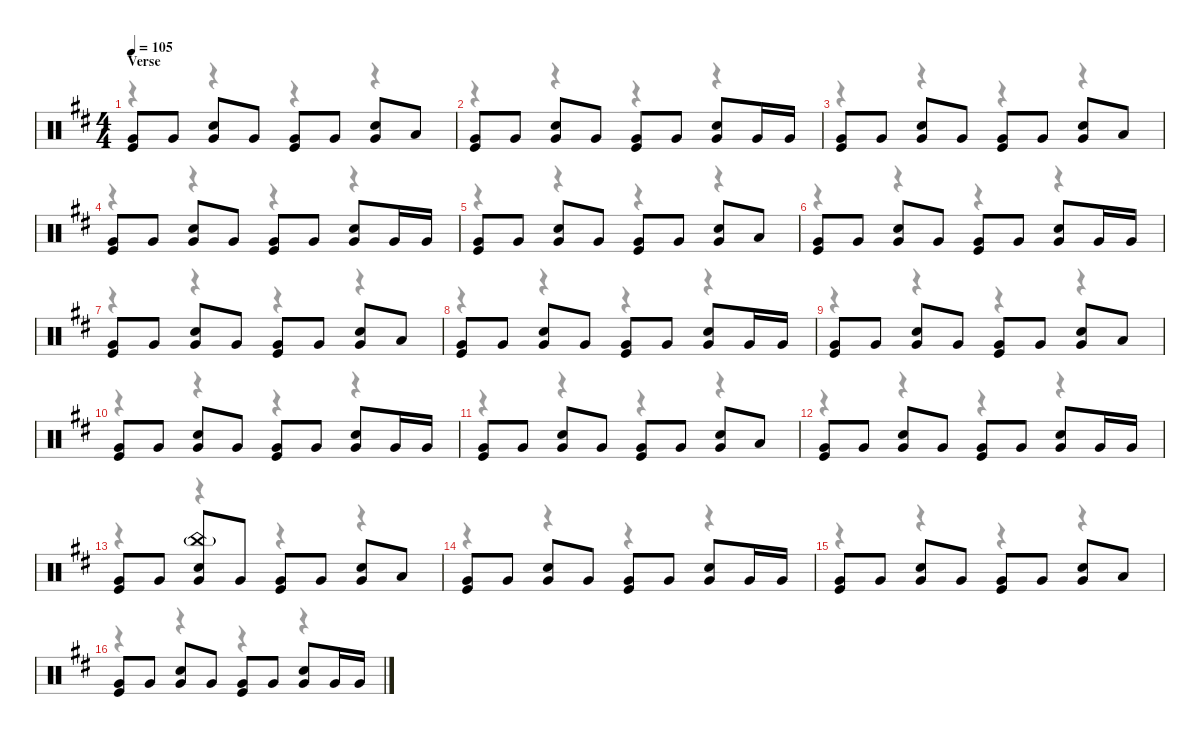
\defaultSystemsLayout 4
\hideDynamics
\bracketExtendMode nobrackets
\singleTrackTrackNamePolicy hidden
\multiTrackTrackNamePolicy hidden
\firstSystemTrackNameMode fullname
\firstSystemTrackNameOrientation horizontal
\otherSystemsTrackNameOrientation horizontal
\track ("Drums" "drm.") {instrument percussion}
\staff {score}
\articulation defaults
\voice
\ts (4 4)
\section ("" "Verse")
\tempo 105
\clef neutral
\ks bminor
("Very Low Tom (hit)"{acc forcenatural} "Kick (hit)"{acc forcenatural}).8{dy mp beam Up} "Very Low Tom (hit)"{acc forcenatural}.8{beam Up} ("Very Low Tom (hit)"{acc forcenatural} "Snare (hit) 2"{acc forcenatural}).8{beam Up} "Very Low Tom (hit)"{acc forcenatural}.8{beam Up} ("Very Low Tom (hit)"{acc forcenatural} "Kick (hit)"{acc forcenatural}).8{beam Up} "Very Low Tom (hit)"{acc forcenatural}.8{beam Up} ("Very Low Tom (hit)"{acc forcenatural} "Snare (hit) 2"{acc forcenatural}).8{beam Up} "Low Tom (hit)"{acc forcenatural}.8{beam Up} |
("Very Low Tom (hit)"{acc forcenatural} "Kick (hit)"{acc forcenatural}).8{beam Up} "Very Low Tom (hit)"{acc forcenatural}.8{beam Up} ("Very Low Tom (hit)"{acc forcenatural} "Snare (hit) 2"{acc forcenatural}).8{beam Up} "Very Low Tom (hit)"{acc forcenatural}.8{beam Up} ("Very Low Tom (hit)"{acc forcenatural} "Kick (hit)"{acc forcenatural}).8{beam Up} "Very Low Tom (hit)"{acc forcenatural}.8{beam Up} ("Very Low Tom (hit)"{acc forcenatural} "Snare (hit) 2"{acc forcenatural}).8{beam Up} "Very Low Tom (hit)"{acc forcenatural}.16{beam Up} "Very Low Tom (hit)"{acc forcenatural}.16{beam Up} |
("Very Low Tom (hit)"{acc forcenatural} "Kick (hit)"{acc forcenatural}).8{beam Up} "Very Low Tom (hit)"{acc forcenatural}.8{beam Up} ("Very Low Tom (hit)"{acc forcenatural} "Snare (hit) 2"{acc forcenatural}).8{beam Up} "Very Low Tom (hit)"{acc forcenatural}.8{beam Up} ("Very Low Tom (hit)"{acc forcenatural} "Kick (hit)"{acc forcenatural}).8{beam Up} "Very Low Tom (hit)"{acc forcenatural}.8{beam Up} ("Very Low Tom (hit)"{acc forcenatural} "Snare (hit) 2"{acc forcenatural}).8{beam Up} "Low Tom (hit)"{acc forcenatural}.8{beam Up} |
("Very Low Tom (hit)"{acc forcenatural} "Kick (hit)"{acc forcenatural}).8{beam Up} "Very Low Tom (hit)"{acc forcenatural}.8{beam Up} ("Very Low Tom (hit)"{acc forcenatural} "Snare (hit) 2"{acc forcenatural}).8{beam Up} "Very Low Tom (hit)"{acc forcenatural}.8{beam Up} ("Very Low Tom (hit)"{acc forcenatural} "Kick (hit)"{acc forcenatural}).8{beam Up} "Very Low Tom (hit)"{acc forcenatural}.8{beam Up} ("Very Low Tom (hit)"{acc forcenatural} "Snare (hit) 2"{acc forcenatural}).8{beam Up} "Very Low Tom (hit)"{acc forcenatural}.16{beam Up} "Very Low Tom (hit)"{acc forcenatural}.16{beam Up} |
("Very Low Tom (hit)"{acc forcenatural} "Kick (hit)"{acc forcenatural}).8{beam Up} "Very Low Tom (hit)"{acc forcenatural}.8{beam Up} ("Very Low Tom (hit)"{acc forcenatural} "Snare (hit) 2"{acc forcenatural}).8{beam Up} "Very Low Tom (hit)"{acc forcenatural}.8{beam Up} ("Very Low Tom (hit)"{acc forcenatural} "Kick (hit)"{acc forcenatural}).8{beam Up} "Very Low Tom (hit)"{acc forcenatural}.8{beam Up} ("Very Low Tom (hit)"{acc forcenatural} "Snare (hit) 2"{acc forcenatural}).8{beam Up} "Low Tom (hit)"{acc forcenatural}.8{beam Up} |
("Very Low Tom (hit)"{acc forcenatural} "Kick (hit)"{acc forcenatural}).8{beam Up} "Very Low Tom (hit)"{acc forcenatural}.8{beam Up} ("Very Low Tom (hit)"{acc forcenatural} "Snare (hit) 2"{acc forcenatural}).8{beam Up} "Very Low Tom (hit)"{acc forcenatural}.8{beam Up} ("Very Low Tom (hit)"{acc forcenatural} "Kick (hit)"{acc forcenatural}).8{beam Up} "Very Low Tom (hit)"{acc forcenatural}.8{beam Up} ("Very Low Tom (hit)"{acc forcenatural} "Snare (hit) 2"{acc forcenatural}).8{beam Up} "Very Low Tom (hit)"{acc forcenatural}.16{beam Up} "Very Low Tom (hit)"{acc forcenatural}.16{beam Up} |
("Very Low Tom (hit)"{acc forcenatural} "Kick (hit)"{acc forcenatural}).8{beam Up} "Very Low Tom (hit)"{acc forcenatural}.8{beam Up} ("Very Low Tom (hit)"{acc forcenatural} "Snare (hit) 2"{acc forcenatural}).8{beam Up} "Very Low Tom (hit)"{acc forcenatural}.8{beam Up} ("Very Low Tom (hit)"{acc forcenatural} "Kick (hit)"{acc forcenatural}).8{beam Up} "Very Low Tom (hit)"{acc forcenatural}.8{beam Up} ("Very Low Tom (hit)"{acc forcenatural} "Snare (hit) 2"{acc forcenatural}).8{beam Up} "Low Tom (hit)"{acc forcenatural}.8{beam Up} |
("Very Low Tom (hit)"{acc forcenatural} "Kick (hit)"{acc forcenatural}).8{beam Up} "Very Low Tom (hit)"{acc forcenatural}.8{beam Up} ("Very Low Tom (hit)"{acc forcenatural} "Snare (hit) 2"{acc forcenatural}).8{beam Up} "Very Low Tom (hit)"{acc forcenatural}.8{beam Up} ("Very Low Tom (hit)"{acc forcenatural} "Kick (hit)"{acc forcenatural}).8{beam Up} "Very Low Tom (hit)"{acc forcenatural}.8{beam Up} ("Very Low Tom (hit)"{acc forcenatural} "Snare (hit) 2"{acc forcenatural}).8{beam Up} "Very Low Tom (hit)"{acc forcenatural}.16{beam Up} "Very Low Tom (hit)"{acc forcenatural}.16{beam Up} |
("Very Low Tom (hit)"{acc forcenatural} "Kick (hit)"{acc forcenatural}).8{beam Up} "Very Low Tom (hit)"{acc forcenatural}.8{beam Up} ("Very Low Tom (hit)"{acc forcenatural} "Snare (hit) 2"{acc forcenatural}).8{beam Up} "Very Low Tom (hit)"{acc forcenatural}.8{beam Up} ("Very Low Tom (hit)"{acc forcenatural} "Kick (hit)"{acc forcenatural}).8{beam Up} "Very Low Tom (hit)"{acc forcenatural}.8{beam Up} ("Very Low Tom (hit)"{acc forcenatural} "Snare (hit) 2"{acc forcenatural}).8{beam Up} "Low Tom (hit)"{acc forcenatural}.8{beam Up} |
("Very Low Tom (hit)"{acc forcenatural} "Kick (hit)"{acc forcenatural}).8{beam Up} "Very Low Tom (hit)"{acc forcenatural}.8{beam Up} ("Very Low Tom (hit)"{acc forcenatural} "Snare (hit) 2"{acc forcenatural}).8{beam Up} "Very Low Tom (hit)"{acc forcenatural}.8{beam Up} ("Very Low Tom (hit)"{acc forcenatural} "Kick (hit)"{acc forcenatural}).8{beam Up} "Very Low Tom (hit)"{acc forcenatural}.8{beam Up} ("Very Low Tom (hit)"{acc forcenatural} "Snare (hit) 2"{acc forcenatural}).8{beam Up} "Very Low Tom (hit)"{acc forcenatural}.16{beam Up} "Very Low Tom (hit)"{acc forcenatural}.16{beam Up} |
("Very Low Tom (hit)"{acc forcenatural} "Kick (hit)"{acc forcenatural}).8{beam Up} "Very Low Tom (hit)"{acc forcenatural}.8{beam Up} ("Very Low Tom (hit)"{acc forcenatural} "Snare (hit) 2"{acc forcenatural}).8{beam Up} "Very Low Tom (hit)"{acc forcenatural}.8{beam Up} ("Very Low Tom (hit)"{acc forcenatural} "Kick (hit)"{acc forcenatural}).8{beam Up} "Very Low Tom (hit)"{acc forcenatural}.8{beam Up} ("Very Low Tom (hit)"{acc forcenatural} "Snare (hit) 2"{acc forcenatural}).8{beam Up} "Low Tom (hit)"{acc forcenatural}.8{beam Up} |
("Very Low Tom (hit)"{acc forcenatural} "Kick (hit)"{acc forcenatural}).8{beam Up} "Very Low Tom (hit)"{acc forcenatural}.8{beam Up} ("Very Low Tom (hit)"{acc forcenatural} "Snare (hit) 2"{acc forcenatural}).8{beam Up} "Very Low Tom (hit)"{acc forcenatural}.8{beam Up} ("Very Low Tom (hit)"{acc forcenatural} "Kick (hit)"{acc forcenatural}).8{beam Up} "Very Low Tom (hit)"{acc forcenatural}.8{beam Up} ("Very Low Tom (hit)"{acc forcenatural} "Snare (hit) 2"{acc forcenatural}).8{beam Up} "Very Low Tom (hit)"{acc forcenatural}.16{beam Up} "Very Low Tom (hit)"{acc forcenatural}.16{beam Up} |
("Very Low Tom (hit)"{acc forcenatural} "Kick (hit)"{acc forcenatural}).8{beam Up} "Very Low Tom (hit)"{acc forcenatural}.8{beam Up} ("China (hit)"{g acc forcenatural} "Very Low Tom (hit)"{acc forcenatural} "Snare (hit) 2"{acc forcenatural}).8{beam Up} "Very Low Tom (hit)"{acc forcenatural}.8{beam Up} ("Very Low Tom (hit)"{acc forcenatural} "Kick (hit)"{acc forcenatural}).8{beam Up} "Very Low Tom (hit)"{acc forcenatural}.8{beam Up} ("Very Low Tom (hit)"{acc forcenatural} "Snare (hit) 2"{acc forcenatural}).8{beam Up} "Low Tom (hit)"{acc forcenatural}.8{beam Up} |
("Very Low Tom (hit)"{acc forcenatural} "Kick (hit)"{acc forcenatural}).8{beam Up} "Very Low Tom (hit)"{acc forcenatural}.8{beam Up} ("Very Low Tom (hit)"{acc forcenatural} "Snare (hit) 2"{acc forcenatural}).8{beam Up} "Very Low Tom (hit)"{acc forcenatural}.8{beam Up} ("Very Low Tom (hit)"{acc forcenatural} "Kick (hit)"{acc forcenatural}).8{beam Up} "Very Low Tom (hit)"{acc forcenatural}.8{beam Up} ("Very Low Tom (hit)"{acc forcenatural} "Snare (hit) 2"{acc forcenatural}).8{beam Up} "Very Low Tom (hit)"{acc forcenatural}.16{beam Up} "Very Low Tom (hit)"{acc forcenatural}.16{beam Up} |
("Very Low Tom (hit)"{acc forcenatural} "Kick (hit)"{acc forcenatural}).8{beam Up} "Very Low Tom (hit)"{acc forcenatural}.8{beam Up} ("Very Low Tom (hit)"{acc forcenatural} "Snare (hit) 2"{acc forcenatural}).8{beam Up} "Very Low Tom (hit)"{acc forcenatural}.8{beam Up} ("Very Low Tom (hit)"{acc forcenatural} "Kick (hit)"{acc forcenatural}).8{beam Up} "Very Low Tom (hit)"{acc forcenatural}.8{beam Up} ("Very Low Tom (hit)"{acc forcenatural} "Snare (hit) 2"{acc forcenatural}).8{beam Up} "Low Tom (hit)"{acc forcenatural}.8{beam Up} |
("Very Low Tom (hit)"{acc forcenatural} "Kick (hit)"{acc forcenatural}).8{beam Up} "Very Low Tom (hit)"{acc forcenatural}.8{beam Up} ("Very Low Tom (hit)"{acc forcenatural} "Snare (hit) 2"{acc forcenatural}).8{beam Up} "Very Low Tom (hit)"{acc forcenatural}.8{beam Up} ("Very Low Tom (hit)"{acc forcenatural} "Kick (hit)"{acc forcenatural}).8{beam Up} "Very Low Tom (hit)"{acc forcenatural}.8{beam Up} ("Very Low Tom (hit)"{acc forcenatural} "Snare (hit) 2"{acc forcenatural}).8{beam Up} "Very Low Tom (hit)"{acc forcenatural}.16{beam Up} "Very Low Tom (hit)"{acc forcenatural}.16{beam Up}
\voice
\clef neutral
\ottava regular
\simile none
\ks bminor
r.4{dy mf beam Down} r.4{beam Down} r.4{beam Down} r.4{beam Down} |
r.4{beam Down} r.4{beam Down} r.4{beam Down} r.4{beam Down} |
r.4{beam Down} r.4{beam Down} r.4{beam Down} r.4{beam Down} |
r.4{beam Down} r.4{beam Down} r.4{beam Down} r.4{beam Down} |
r.4{beam Down} r.4{beam Down} r.4{beam Down} r.4{beam Down} |
r.4{beam Down} r.4{beam Down} r.4{beam Down} r.4{beam Down} |
r.4{beam Down} r.4{beam Down} r.4{beam Down} r.4{beam Down} |
r.4{beam Down} r.4{beam Down} r.4{beam Down} r.4{beam Down} |
r.4{beam Down} r.4{beam Down} r.4{beam Down} r.4{beam Down} |
r.4{beam Down} r.4{beam Down} r.4{beam Down} r.4{beam Down} |
r.4{beam Down} r.4{beam Down} r.4{beam Down} r.4{beam Down} |
r.4{beam Down} r.4{beam Down} r.4{beam Down} r.4{beam Down} |
r.4{beam Down} r.4{beam Down} r.4{beam Down} r.4{beam Down} |
r.4{beam Down} r.4{beam Down} r.4{beam Down} r.4{beam Down} |
r.4{beam Down} r.4{beam Down} r.4{beam Down} r.4{beam Down} |
r.4{beam Down} r.4{beam Down} r.4{beam Down} r.4{beam Down}
